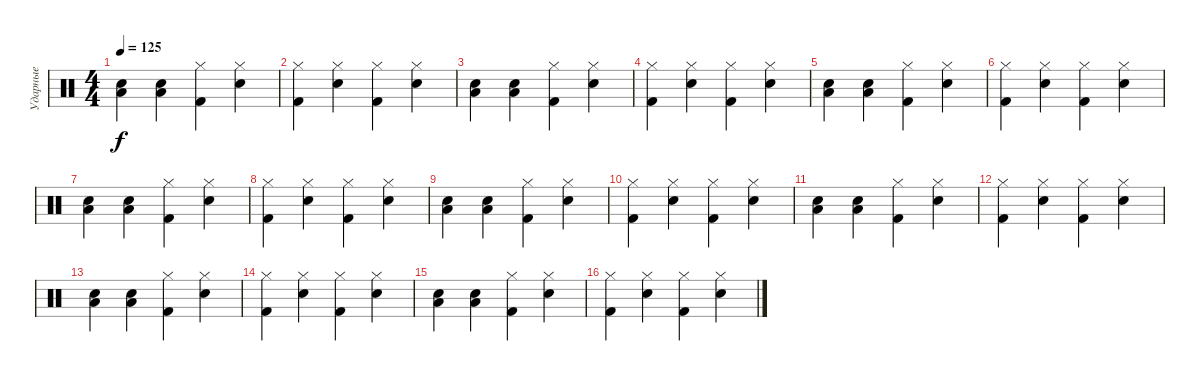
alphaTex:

\track ("Ударные" "Ударные") {instrument percussion}
\staff {score}
\articulation defaults
\ts (4 4)
\tempo 125
\clef neutral
\ks c
("Snare (hit) 2" "Low Tom (hit)").4{dy f} ("Snare (hit) 2" "Low Tom (hit)").4 ("Hi-Hat (closed)" "Kick (hit) 2").4 ("Hi-Hat (closed)" "Snare (hit) 2").4 |
("Hi-Hat (closed)" "Kick (hit) 2").4 ("Hi-Hat (closed)" "Snare (hit) 2").4 ("Hi-Hat (closed)" "Kick (hit) 2").4 ("Hi-Hat (closed)" "Snare (hit) 2").4 |
("Snare (hit) 2" "Low Tom (hit)").4 ("Snare (hit) 2" "Low Tom (hit)").4 ("Hi-Hat (closed)" "Kick (hit) 2").4 ("Hi-Hat (closed)" "Snare (hit) 2").4 |
("Hi-Hat (closed)" "Kick (hit) 2").4 ("Hi-Hat (closed)" "Snare (hit) 2").4 ("Hi-Hat (closed)" "Kick (hit) 2").4 ("Hi-Hat (closed)" "Snare (hit) 2").4 |
("Snare (hit) 2" "Low Tom (hit)").4 ("Snare (hit) 2" "Low Tom (hit)").4 ("Hi-Hat (closed)" "Kick (hit) 2").4 ("Hi-Hat (closed)" "Snare (hit) 2").4 |
("Hi-Hat (closed)" "Kick (hit) 2").4 ("Hi-Hat (closed)" "Snare (hit) 2").4 ("Hi-Hat (closed)" "Kick (hit) 2").4 ("Hi-Hat (closed)" "Snare (hit) 2").4 |
("Snare (hit) 2" "Low Tom (hit)").4 ("Snare (hit) 2" "Low Tom (hit)").4 ("Hi-Hat (closed)" "Kick (hit) 2").4 ("Hi-Hat (closed)" "Snare (hit) 2").4 |
("Hi-Hat (closed)" "Kick (hit) 2").4 ("Hi-Hat (closed)" "Snare (hit) 2").4 ("Hi-Hat (closed)" "Kick (hit) 2").4 ("Hi-Hat (closed)" "Snare (hit) 2").4 |
("Snare (hit) 2" "Low Tom (hit)").4 ("Snare (hit) 2" "Low Tom (hit)").4 ("Hi-Hat (closed)" "Kick (hit) 2").4 ("Hi-Hat (closed)" "Snare (hit) 2").4 |
("Hi-Hat (closed)" "Kick (hit) 2").4 ("Hi-Hat (closed)" "Snare (hit) 2").4 ("Hi-Hat (closed)" "Kick (hit) 2").4 ("Hi-Hat (closed)" "Snare (hit) 2").4 |
("Snare (hit) 2" "Low Tom (hit)").4 ("Snare (hit) 2" "Low Tom (hit)").4 ("Hi-Hat (closed)" "Kick (hit) 2").4 ("Hi-Hat (closed)" "Snare (hit) 2").4 |
("Hi-Hat (closed)" "Kick (hit) 2").4 ("Hi-Hat (closed)" "Snare (hit) 2").4 ("Hi-Hat (closed)" "Kick (hit) 2").4 ("Hi-Hat (closed)" "Snare (hit) 2").4 |
("Snare (hit) 2" "Low Tom (hit)").4 ("Snare (hit) 2" "Low Tom (hit)").4 ("Hi-Hat (closed)" "Kick (hit) 2").4 ("Hi-Hat (closed)" "Snare (hit) 2").4 |
("Hi-Hat (closed)" "Kick (hit) 2").4 ("Hi-Hat (closed)" "Snare (hit) 2").4 ("Hi-Hat (closed)" "Kick (hit) 2").4 ("Hi-Hat (closed)" "Snare (hit) 2").4 |
("Snare (hit) 2" "Low Tom (hit)").4 ("Snare (hit) 2" "Low Tom (hit)").4 ("Hi-Hat (closed)" "Kick (hit) 2").4 ("Hi-Hat (closed)" "Snare (hit) 2").4 |
("Hi-Hat (closed)" "Kick (hit) 2").4 ("Hi-Hat (closed)" "Snare (hit) 2").4 ("Hi-Hat (closed)" "Kick (hit) 2").4 ("Hi-Hat (closed)" "Snare (hit) 2").4
